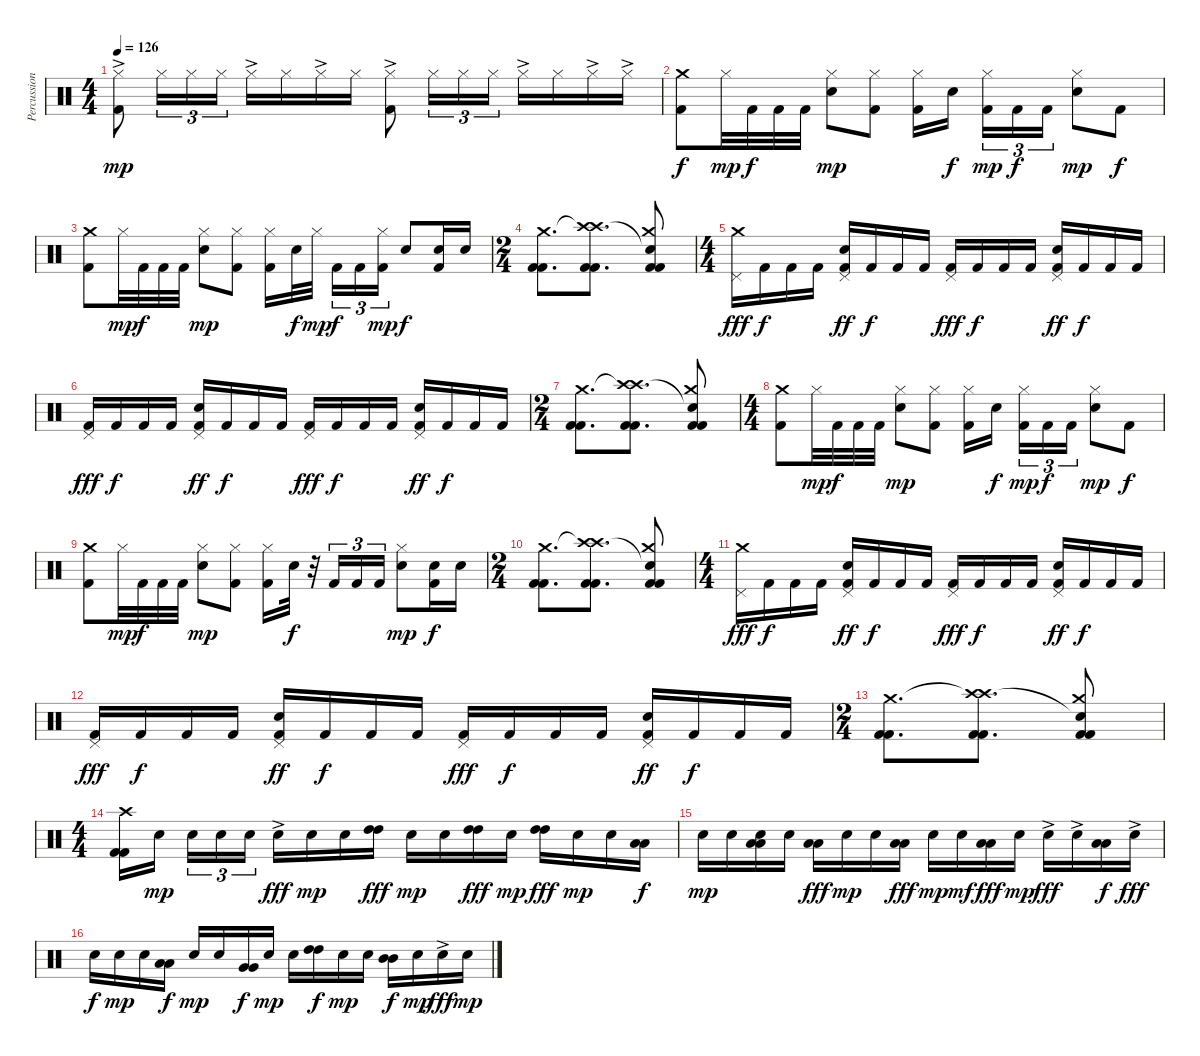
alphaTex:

\track ("Percussion" "Percussion") {instrument percussion}
\staff {score}
\articulation defaults
\ts (4 4)
\tempo 126
\clef neutral
\ks c
("Hi-Hat (closed)"{ac} "Kick (hit) 2").8{dy mp} "Hi-Hat (closed)".16{tu (3 2)} "Hi-Hat (closed)".16{tu (3 2)} "Hi-Hat (closed)".16{tu (3 2)} "Hi-Hat (closed)"{ac}.16 "Hi-Hat (closed)".16 "Hi-Hat (closed)"{ac}.16 "Hi-Hat (closed)".16 ("Hi-Hat (closed)"{ac} "Kick (hit) 2").8 "Hi-Hat (closed)".16{tu (3 2)} "Hi-Hat (closed)".16{tu (3 2)} "Hi-Hat (closed)".16{tu (3 2)} "Hi-Hat (closed)"{ac}.16 "Hi-Hat (closed)".16 "Hi-Hat (closed)"{ac}.16 "Hi-Hat (closed)"{ac}.16 |
("Crash medium (hit)" "Kick (hit) 2").8{dy f} "Hi-Hat (closed)".32{dy mp} "Kick (hit) 2".32{dy f} "Kick (hit) 2".32 "Kick (hit) 2".32 ("Electric Snare (hit)" "Hi-Hat (closed)").8{dy mp} ("Kick (hit) 2" "Hi-Hat (closed)").8 ("Kick (hit) 2" "Hi-Hat (closed)").16 "Electric Snare (hit)".16{dy f beam splitsecondary} ("Kick (hit) 2" "Hi-Hat (closed)").16{tu (3 2) dy mp} "Kick (hit) 2".16{tu (3 2) dy f} "Kick (hit) 2".16{tu (3 2)} ("Electric Snare (hit)" "Hi-Hat (closed)").8{dy mp} "Kick (hit) 2".8{dy f} |
("Crash medium (hit)" "Kick (hit) 2").8 "Hi-Hat (closed)".32{dy mp} "Kick (hit) 2".32{dy f} "Kick (hit) 2".32 "Kick (hit) 2".32 ("Electric Snare (hit)" "Hi-Hat (closed)").8{dy mp} ("Kick (hit) 2" "Hi-Hat (closed)").8 ("Kick (hit) 2" "Hi-Hat (closed)").16 "Electric Snare (hit)".32{dy f} "Hi-Hat (closed)".32{dy mp beam splitsecondary} "Kick (hit) 2".16{tu (3 2) dy f} "Kick (hit) 2".16{tu (3 2)} ("Kick (hit) 2" "Hi-Hat (closed)").16{tu (3 2) dy mp} "Electric Snare (hit)".8{dy f} ("Electric Snare (hit)" "Kick (hit) 2").16 "Electric Snare (hit)".16 |
\ts (2 4)
("Crash medium (hit)" "Kick (hit) 2" "Kick (hit) 2").8{d} ("Crash high (hit)"{t} "Crash high (hit)" "Kick (hit) 2" "Kick (hit) 2").8{d} ("Crash medium (hit)" "Snare (hit)"{t} "Kick (hit) 2" "Kick (hit) 2").8 |
\ts (4 4)
("Crash medium (hit)" "Pedal Hi-Hat (hit)").16{dy fff} "Kick (hit) 2".16{dy f} "Kick (hit) 2".16 "Kick (hit) 2".16 ("Kick (hit) 2" "Electric Snare (hit)" "Pedal Hi-Hat (hit)").16{dy ff} "Kick (hit) 2".16{dy f} "Kick (hit) 2".16 "Kick (hit) 2".16 ("Kick (hit) 2" "Pedal Hi-Hat (hit)").16{dy fff} "Kick (hit) 2".16{dy f} "Kick (hit) 2".16 "Kick (hit) 2".16 ("Kick (hit) 2" "Electric Snare (hit)" "Pedal Hi-Hat (hit)").16{dy ff} "Kick (hit) 2".16{dy f} "Kick (hit) 2".16 "Kick (hit) 2".16 |
("Kick (hit) 2" "Pedal Hi-Hat (hit)").16{dy fff} "Kick (hit) 2".16{dy f} "Kick (hit) 2".16 "Kick (hit) 2".16 ("Kick (hit) 2" "Electric Snare (hit)" "Pedal Hi-Hat (hit)").16{dy ff} "Kick (hit) 2".16{dy f} "Kick (hit) 2".16 "Kick (hit) 2".16 ("Kick (hit) 2" "Pedal Hi-Hat (hit)").16{dy fff} "Kick (hit) 2".16{dy f} "Kick (hit) 2".16 "Kick (hit) 2".16 ("Kick (hit) 2" "Electric Snare (hit)" "Pedal Hi-Hat (hit)").16{dy ff} "Kick (hit) 2".16{dy f} "Kick (hit) 2".16 "Kick (hit) 2".16 |
\ts (2 4)
("Crash medium (hit)" "Kick (hit) 2" "Kick (hit) 2").8{d} ("Crash high (hit)"{t} "Crash high (hit)" "Kick (hit) 2" "Kick (hit) 2").8{d} ("Crash medium (hit)" "Snare (hit)"{t} "Kick (hit) 2" "Kick (hit) 2").8 |
\ts (4 4)
("Crash medium (hit)" "Kick (hit) 2").8 "Hi-Hat (closed)".32{dy mp} "Kick (hit) 2".32{dy f} "Kick (hit) 2".32 "Kick (hit) 2".32 ("Electric Snare (hit)" "Hi-Hat (closed)").8{dy mp} ("Kick (hit) 2" "Hi-Hat (closed)").8 ("Kick (hit) 2" "Hi-Hat (closed)").16 "Electric Snare (hit)".16{dy f beam splitsecondary} ("Kick (hit) 2" "Hi-Hat (closed)").16{tu (3 2) dy mp} "Kick (hit) 2".16{tu (3 2) dy f} "Kick (hit) 2".16{tu (3 2)} ("Electric Snare (hit)" "Hi-Hat (closed)").8{dy mp} "Kick (hit) 2".8{dy f} |
("Crash medium (hit)" "Kick (hit) 2").8 "Hi-Hat (closed)".32{dy mp} "Kick (hit) 2".32{dy f} "Kick (hit) 2".32 "Kick (hit) 2".32 ("Electric Snare (hit)" "Hi-Hat (closed)").8{dy mp} ("Kick (hit) 2" "Hi-Hat (closed)").8 ("Kick (hit) 2" "Hi-Hat (closed)").16 "Electric Snare (hit)".32{dy f} r.32 "Kick (hit) 2".16{tu (3 2)} "Kick (hit) 2".16{tu (3 2)} "Kick (hit) 2".16{tu (3 2)} ("Electric Snare (hit)" "Hi-Hat (closed)").8{dy mp} ("Electric Snare (hit)" "Kick (hit) 2").16{dy f} "Electric Snare (hit)".16 |
\ts (2 4)
("Crash medium (hit)" "Kick (hit) 2" "Kick (hit) 2").8{d} ("Crash high (hit)"{t} "Crash high (hit)" "Kick (hit) 2" "Kick (hit) 2").8{d} ("Crash medium (hit)" "Snare (hit)"{t} "Kick (hit) 2" "Kick (hit) 2").8 |
\ts (4 4)
("Crash medium (hit)" "Pedal Hi-Hat (hit)").16{dy fff} "Kick (hit) 2".16{dy f} "Kick (hit) 2".16 "Kick (hit) 2".16 ("Kick (hit) 2" "Electric Snare (hit)" "Pedal Hi-Hat (hit)").16{dy ff} "Kick (hit) 2".16{dy f} "Kick (hit) 2".16 "Kick (hit) 2".16 ("Kick (hit) 2" "Pedal Hi-Hat (hit)").16{dy fff} "Kick (hit) 2".16{dy f} "Kick (hit) 2".16 "Kick (hit) 2".16 ("Kick (hit) 2" "Electric Snare (hit)" "Pedal Hi-Hat (hit)").16{dy ff} "Kick (hit) 2".16{dy f} "Kick (hit) 2".16 "Kick (hit) 2".16 |
("Kick (hit) 2" "Pedal Hi-Hat (hit)").16{dy fff} "Kick (hit) 2".16{dy f} "Kick (hit) 2".16 "Kick (hit) 2".16 ("Kick (hit) 2" "Electric Snare (hit)" "Pedal Hi-Hat (hit)").16{dy ff} "Kick (hit) 2".16{dy f} "Kick (hit) 2".16 "Kick (hit) 2".16 ("Kick (hit) 2" "Pedal Hi-Hat (hit)").16{dy fff} "Kick (hit) 2".16{dy f} "Kick (hit) 2".16 "Kick (hit) 2".16 ("Kick (hit) 2" "Electric Snare (hit)" "Pedal Hi-Hat (hit)").16{dy ff} "Kick (hit) 2".16{dy f} "Kick (hit) 2".16 "Kick (hit) 2".16 |
\ts (2 4)
("Crash medium (hit)" "Kick (hit) 2" "Kick (hit) 2").8{d} ("Crash high (hit)"{t} "Crash high (hit)" "Kick (hit) 2" "Kick (hit) 2").8{d} ("Crash medium (hit)" "Snare (hit)"{t} "Kick (hit) 2" "Kick (hit) 2").8 |
\ts (4 4)
("Crash high (hit)" "Kick (hit) 2" "Kick (hit) 2").16 "Electric Snare (hit)".16{dy mp beam splitsecondary} "Electric Snare (hit)".16{tu (3 2)} "Electric Snare (hit)".16{tu (3 2)} "Electric Snare (hit)".16{tu (3 2)} "Electric Snare (hit)"{ac}.16{dy fff} "Electric Snare (hit)".16{dy mp} "Electric Snare (hit)".16 ("High Tom (hit)" "High Tom (hit)").16{dy fff} "Electric Snare (hit)".16{dy mp} "Electric Snare (hit)".16 ("High Tom (hit)" "High Tom (hit)").16{dy fff} "Electric Snare (hit)".16{dy mp} ("High Tom (hit)" "High Tom (hit)").16{dy fff} "Electric Snare (hit)".16{dy mp} "Electric Snare (hit)".16 ("Low Tom (hit)" "Low Tom (hit)").16{dy f} |
"Electric Snare (hit)".16{dy mp} "Electric Snare (hit)".16 ("Low Tom (hit)" "Low Tom (hit)" "Electric Snare (hit)").16 "Electric Snare (hit)".16 ("Low Tom (hit)" "Low Tom (hit)").16{dy fff} "Electric Snare (hit)".16{dy mp} "Electric Snare (hit)".16 ("Low Tom (hit)" "Low Tom (hit)").16{dy fff} "Electric Snare (hit)".16{dy mp} "Electric Snare (hit)".16{dy mf} ("Low Floor Tom (hit)" "Low Floor Tom (hit)").16{dy fff} "Electric Snare (hit)".16{dy mp} "Electric Snare (hit)"{ac}.16{dy fff} "Electric Snare (hit)"{ac}.16 ("Low Tom (hit)" "Low Tom (hit)").16{dy f} "Electric Snare (hit)"{ac}.16{dy fff} |
"Electric Snare (hit)".16{dy f} "Electric Snare (hit)".16{dy mp} "Electric Snare (hit)".16 ("Low Tom (hit)" "Low Tom (hit)").16{dy f} "Electric Snare (hit)".16{dy mp} "Electric Snare (hit)".16 ("Very Low Tom (hit)" "Very Low Tom (hit)").16{dy f} "Electric Snare (hit)".16{dy mp} "Electric Snare (hit)".16 ("High Tom (hit)" "High Tom (hit)").16{dy f} "Electric Snare (hit)".16{dy mp} "Electric Snare (hit)".16 ("Mid Tom (hit)" "Mid Tom (hit)").16{dy f} "Electric Snare (hit)".16{dy mp} "Electric Snare (hit)"{ac}.16{dy fff} "Electric Snare (hit)".16{dy mp}
